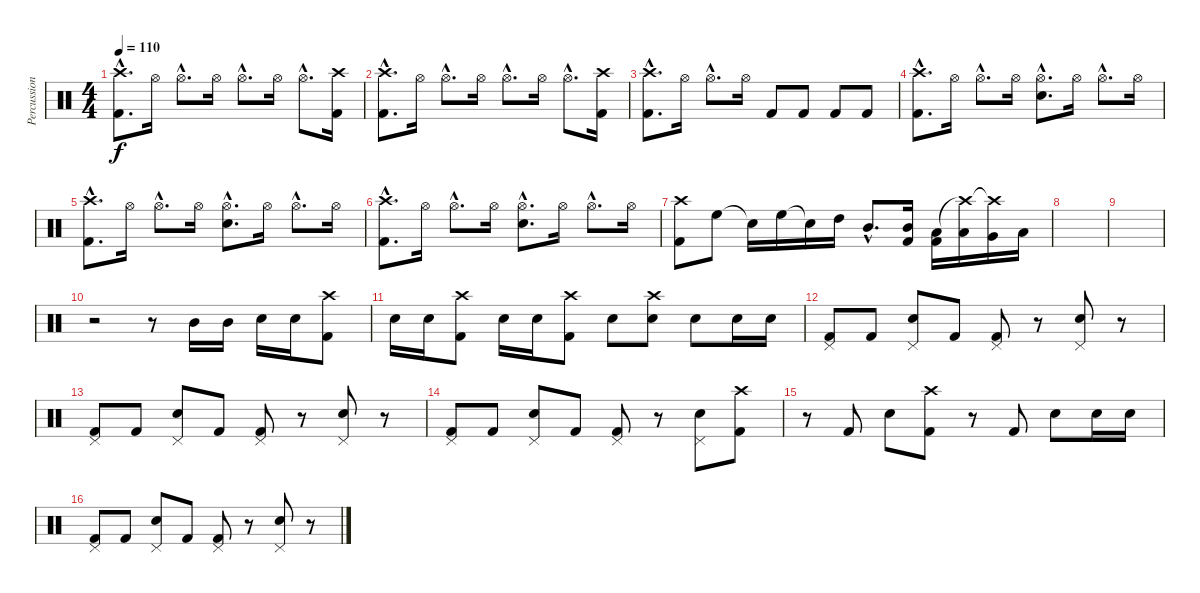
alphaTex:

\track ("Percussion" "Percussion") {instrument percussion}
\staff {score}
\articulation defaults
\ts (4 4)
\tempo 110
\clef neutral
\ks c
("Crash high (hit)"{hac} "Kick (hit) 2"{hac}).8{d dy f} "Hi-Hat (open)".16 "Hi-Hat (open)"{hac}.8{d} "Hi-Hat (open)".16 "Hi-Hat (open)"{hac}.8{d} "Hi-Hat (open)".16 "Hi-Hat (open)"{hac}.8{d} ("Crash high (hit)" "Kick (hit) 2").16 |
("Crash high (hit)"{hac} "Kick (hit) 2"{hac}).8{d} "Hi-Hat (open)".16 "Hi-Hat (open)"{hac}.8{d} "Hi-Hat (open)".16 "Hi-Hat (open)"{hac}.8{d} "Hi-Hat (open)".16 "Hi-Hat (open)"{hac}.8{d} ("Crash high (hit)" "Kick (hit) 2").16 |
("Crash high (hit)"{hac} "Kick (hit) 2"{hac}).8{d} "Hi-Hat (open)".16 "Hi-Hat (open)"{hac}.8{d} "Hi-Hat (open)".16 "Kick (hit) 2".8 "Kick (hit) 2".8 "Kick (hit) 2".8 "Kick (hit) 2".8 |
("Crash high (hit)"{hac} "Kick (hit) 2"{hac}).8{d} "Hi-Hat (open)".16 "Hi-Hat (open)"{hac}.8{d} "Hi-Hat (open)".16 ("Hi-Hat (open)"{hac} "Electric Snare (hit)"{hac}).8{d} "Hi-Hat (open)".16 "Hi-Hat (open)"{hac}.8{d} "Hi-Hat (open)".16 |
("Crash high (hit)"{hac} "Kick (hit) 2"{hac}).8{d} "Hi-Hat (open)".16 "Hi-Hat (open)"{hac}.8{d} "Hi-Hat (open)".16 ("Hi-Hat (open)"{hac} "Electric Snare (hit)"{hac}).8{d} "Hi-Hat (open)".16 "Hi-Hat (open)"{hac}.8{d} "Hi-Hat (open)".16 |
("Crash high (hit)"{hac} "Kick (hit) 2"{hac}).8{d} "Hi-Hat (open)".16 "Hi-Hat (open)"{hac}.8{d} "Hi-Hat (open)".16 ("Hi-Hat (open)"{hac} "Electric Snare (hit)"{hac}).8{d} "Hi-Hat (open)".16 "Hi-Hat (open)"{hac}.8{d} "Hi-Hat (open)".16 |
("Crash high (hit)" "Kick (hit) 2").8 "High Floor Tom (hit)".8 "Snare (hit)"{t}.16 "High Floor Tom (hit)".16 "Electric Snare (hit)"{t}.16 "High Tom (hit)".16 "Mid Tom (hit)"{hac}.8{d} ("Mid Tom (hit)" "Kick (hit) 2").16 ("Low Tom (hit)" "Kick (hit) 2").16 ("Crash high (hit)"{t} "Low Tom (hit)").16 ("Crash high (hit)"{t} "Very Low Tom (hit)").16 "Low Floor Tom (hit)".16 |
|
|
r.2 r.8 "Mid Tom (hit)".16 "Mid Tom (hit)".16 "Electric Snare (hit)".16 "Electric Snare (hit)".16 ("Kick (hit) 2" "Crash high (hit)").8 |
"Electric Snare (hit)".16 "Electric Snare (hit)".16 ("Kick (hit) 2" "Crash high (hit)").8 "Electric Snare (hit)".16 "Electric Snare (hit)".16 ("Kick (hit) 2" "Crash high (hit)").8 "Electric Snare (hit)".8 ("Electric Snare (hit)" "Crash high (hit)").8 "Electric Snare (hit)".8 "Electric Snare (hit)".16 "Electric Snare (hit)".16 |
("Pedal Hi-Hat (hit)" "Kick (hit) 2").8 "Kick (hit) 2".8 ("Electric Snare (hit)" "Pedal Hi-Hat (hit)").8 "Kick (hit) 2".8 ("Pedal Hi-Hat (hit)" "Kick (hit) 2").8 r.8 ("Electric Snare (hit)" "Pedal Hi-Hat (hit)").8 r.8 |
("Pedal Hi-Hat (hit)" "Kick (hit) 2").8 "Kick (hit) 2".8 ("Electric Snare (hit)" "Pedal Hi-Hat (hit)").8 "Kick (hit) 2".8 ("Pedal Hi-Hat (hit)" "Kick (hit) 2").8 r.8 ("Electric Snare (hit)" "Pedal Hi-Hat (hit)").8 r.8 |
("Pedal Hi-Hat (hit)" "Kick (hit) 2").8 "Kick (hit) 2".8 ("Electric Snare (hit)" "Pedal Hi-Hat (hit)").8 "Kick (hit) 2".8 ("Pedal Hi-Hat (hit)" "Kick (hit) 2").8 r.8 ("Electric Snare (hit)" "Pedal Hi-Hat (hit)").8 ("Kick (hit) 2" "Crash high (hit)").8 |
r.8 "Kick (hit) 2".8 "Electric Snare (hit)".8 ("Kick (hit) 2" "Crash high (hit)").8 r.8 "Kick (hit) 2".8 "Electric Snare (hit)".8 "Electric Snare (hit)".16 "Electric Snare (hit)".16 |
("Pedal Hi-Hat (hit)" "Kick (hit) 2").8 "Kick (hit) 2".8 ("Electric Snare (hit)" "Pedal Hi-Hat (hit)").8 "Kick (hit) 2".8 ("Pedal Hi-Hat (hit)" "Kick (hit) 2").8 r.8 ("Electric Snare (hit)" "Pedal Hi-Hat (hit)").8 r.8
